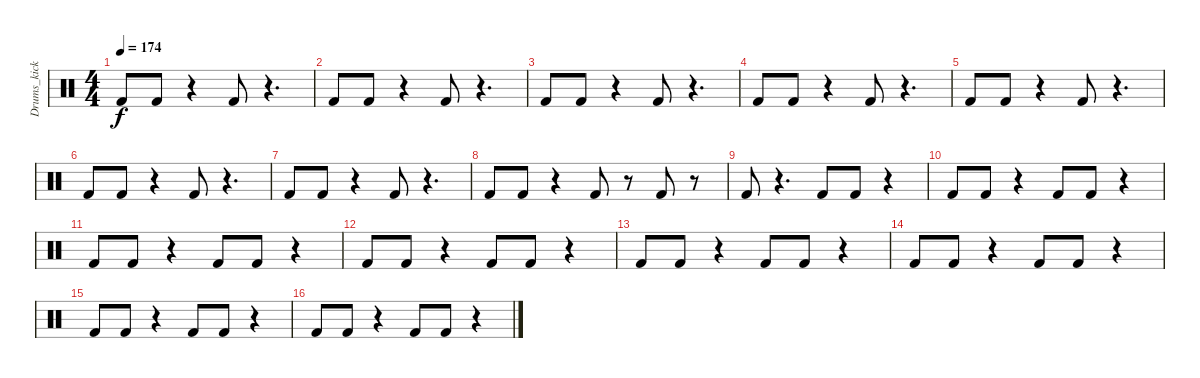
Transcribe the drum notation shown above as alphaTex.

\track ("Drums_kick" "Drums_kick") {instrument percussion}
\staff {score}
\articulation defaults
\ts (4 4)
\tempo 174
\clef neutral
\ks c "Kick (hit) 2".8{dy f} "Kick (hit) 2".8
r.4 "Kick (hit) 2".8 r.4{d} |
"Kick (hit) 2".8 "Kick (hit) 2".8 r.4 "Kick (hit) 2".8 r.4{d} |
"Kick (hit) 2".8 "Kick (hit) 2".8 r.4 "Kick (hit) 2".8 r.4{d} |
"Kick (hit) 2".8 "Kick (hit) 2".8 r.4 "Kick (hit) 2".8 r.4{d} |
"Kick (hit) 2".8 "Kick (hit) 2".8 r.4 "Kick (hit) 2".8 r.4{d} |
"Kick (hit) 2".8 "Kick (hit) 2".8 r.4 "Kick (hit) 2".8 r.4{d} |
"Kick (hit) 2".8 "Kick (hit) 2".8 r.4 "Kick (hit) 2".8 r.4{d} |
"Kick (hit) 2".8 "Kick (hit) 2".8 r.4 "Kick (hit) 2".8 r.8 "Kick (hit) 2".8 r.8 |
"Kick (hit) 2".8 r.4{d} "Kick (hit) 2".8 "Kick (hit) 2".8 r.4 |
"Kick (hit) 2".8 "Kick (hit) 2".8 r.4 "Kick (hit) 2".8 "Kick (hit) 2".8 r.4 |
"Kick (hit) 2".8 "Kick (hit) 2".8 r.4 "Kick (hit) 2".8 "Kick (hit) 2".8 r.4 |
"Kick (hit) 2".8 "Kick (hit) 2".8 r.4 "Kick (hit) 2".8 "Kick (hit) 2".8 r.4 |
"Kick (hit) 2".8 "Kick (hit) 2".8 r.4 "Kick (hit) 2".8 "Kick (hit) 2".8 r.4 |
"Kick (hit) 2".8 "Kick (hit) 2".8 r.4 "Kick (hit) 2".8 "Kick (hit) 2".8 r.4 |
"Kick (hit) 2".8 "Kick (hit) 2".8 r.4 "Kick (hit) 2".8 "Kick (hit) 2".8 r.4 |
"Kick (hit) 2".8 "Kick (hit) 2".8 r.4 "Kick (hit) 2".8 "Kick (hit) 2".8 r.4
